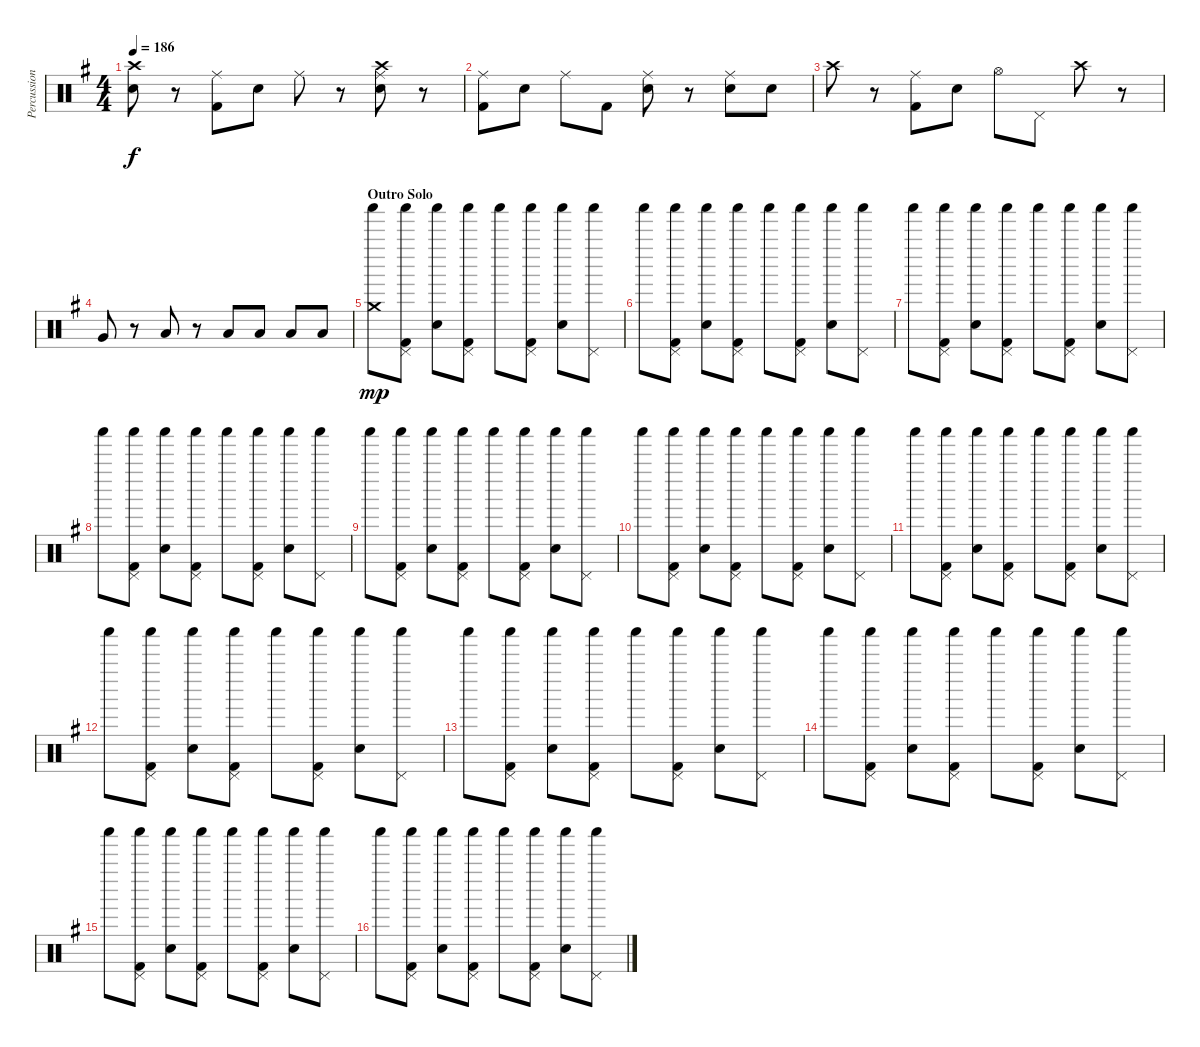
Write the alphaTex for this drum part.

\track ("Percussion" "Percussion") {instrument percussion}
\staff {score}
\articulation defaults
\ts (4 4)
\tempo 186
\clef neutral
\ks g
("Crash high (hit)" "Electric Snare (hit)").8{dy f} r.8 ("Ride (middle)" "Kick (hit) 2").8 "Electric Snare (hit)".8 "Ride (middle)".8 r.8 ("Ride (middle)" "Crash high (hit)" "Electric Snare (hit)").8 r.8 |
("Ride (middle)" "Kick (hit) 2").8 "Electric Snare (hit)".8 "Ride (middle)".8 "Kick (hit) 2".8 ("Ride (middle)" "Electric Snare (hit)").8 r.8 ("Ride (middle)" "Electric Snare (hit)").8 "Electric Snare (hit)".8 |
"Crash high (hit)".8 r.8 ("Ride (middle)" "Kick (hit) 2").8 "Electric Snare (hit)".8 "Hi-Hat (open)".8 "Pedal Hi-Hat (hit)".8 "Crash high (hit)".8 r.8 |
"Very Low Tom (hit)".8 r.8 "Low Tom (hit)".8 r.8 "Low Floor Tom (hit)".8 "Low Floor Tom (hit)".8 "Low Floor Tom (hit)".8 "Low Floor Tom (hit)".8 |
\section ("" "Outro Solo")
("Shaker (hit)" "Crash medium (hit)").8{dy mp} ("Shaker (hit)" "Pedal Hi-Hat (hit)" "Kick (hit) 2").8 ("Shaker (hit)" "Electric Snare (hit)").8 ("Shaker (hit)" "Pedal Hi-Hat (hit)" "Kick (hit) 2").8 "Shaker (hit)".8 ("Shaker (hit)" "Pedal Hi-Hat (hit)" "Kick (hit) 2").8 ("Shaker (hit)" "Electric Snare (hit)").8 ("Shaker (hit)" "Pedal Hi-Hat (hit)").8 |
"Shaker (hit)".8 ("Shaker (hit)" "Pedal Hi-Hat (hit)" "Kick (hit) 2").8 ("Shaker (hit)" "Electric Snare (hit)").8 ("Shaker (hit)" "Pedal Hi-Hat (hit)" "Kick (hit) 2").8 "Shaker (hit)".8 ("Shaker (hit)" "Pedal Hi-Hat (hit)" "Kick (hit) 2").8 ("Shaker (hit)" "Electric Snare (hit)").8 ("Shaker (hit)" "Pedal Hi-Hat (hit)").8 |
"Shaker (hit)".8 ("Shaker (hit)" "Pedal Hi-Hat (hit)" "Kick (hit) 2").8 ("Shaker (hit)" "Electric Snare (hit)").8 ("Shaker (hit)" "Pedal Hi-Hat (hit)" "Kick (hit) 2").8 "Shaker (hit)".8 ("Shaker (hit)" "Pedal Hi-Hat (hit)" "Kick (hit) 2").8 ("Shaker (hit)" "Electric Snare (hit)").8 ("Shaker (hit)" "Pedal Hi-Hat (hit)").8 |
"Shaker (hit)".8 ("Shaker (hit)" "Pedal Hi-Hat (hit)" "Kick (hit) 2").8 ("Shaker (hit)" "Electric Snare (hit)").8 ("Shaker (hit)" "Pedal Hi-Hat (hit)" "Kick (hit) 2").8 "Shaker (hit)".8 ("Shaker (hit)" "Pedal Hi-Hat (hit)" "Kick (hit) 2").8 ("Shaker (hit)" "Electric Snare (hit)").8 ("Shaker (hit)" "Pedal Hi-Hat (hit)").8 |
"Shaker (hit)".8 ("Shaker (hit)" "Pedal Hi-Hat (hit)" "Kick (hit) 2").8 ("Shaker (hit)" "Electric Snare (hit)").8 ("Shaker (hit)" "Pedal Hi-Hat (hit)" "Kick (hit) 2").8 "Shaker (hit)".8 ("Shaker (hit)" "Pedal Hi-Hat (hit)" "Kick (hit) 2").8 ("Shaker (hit)" "Electric Snare (hit)").8 ("Shaker (hit)" "Pedal Hi-Hat (hit)").8 |
"Shaker (hit)".8 ("Shaker (hit)" "Pedal Hi-Hat (hit)" "Kick (hit) 2").8 ("Shaker (hit)" "Electric Snare (hit)").8 ("Shaker (hit)" "Pedal Hi-Hat (hit)" "Kick (hit) 2").8 "Shaker (hit)".8 ("Shaker (hit)" "Pedal Hi-Hat (hit)" "Kick (hit) 2").8 ("Shaker (hit)" "Electric Snare (hit)").8 ("Shaker (hit)" "Pedal Hi-Hat (hit)").8 |
"Shaker (hit)".8 ("Shaker (hit)" "Pedal Hi-Hat (hit)" "Kick (hit) 2").8 ("Shaker (hit)" "Electric Snare (hit)").8 ("Shaker (hit)" "Pedal Hi-Hat (hit)" "Kick (hit) 2").8 "Shaker (hit)".8 ("Shaker (hit)" "Pedal Hi-Hat (hit)" "Kick (hit) 2").8 ("Shaker (hit)" "Electric Snare (hit)").8 ("Shaker (hit)" "Pedal Hi-Hat (hit)").8 |
"Shaker (hit)".8 ("Shaker (hit)" "Pedal Hi-Hat (hit)" "Kick (hit) 2").8 ("Shaker (hit)" "Electric Snare (hit)").8 ("Shaker (hit)" "Pedal Hi-Hat (hit)" "Kick (hit) 2").8 "Shaker (hit)".8 ("Shaker (hit)" "Pedal Hi-Hat (hit)" "Kick (hit) 2").8 ("Shaker (hit)" "Electric Snare (hit)").8 ("Shaker (hit)" "Pedal Hi-Hat (hit)").8 |
"Shaker (hit)".8 ("Shaker (hit)" "Pedal Hi-Hat (hit)" "Kick (hit) 2").8 ("Shaker (hit)" "Electric Snare (hit)").8 ("Shaker (hit)" "Pedal Hi-Hat (hit)" "Kick (hit) 2").8 "Shaker (hit)".8 ("Shaker (hit)" "Pedal Hi-Hat (hit)" "Kick (hit) 2").8 ("Shaker (hit)" "Electric Snare (hit)").8 ("Shaker (hit)" "Pedal Hi-Hat (hit)").8 |
"Shaker (hit)".8 ("Shaker (hit)" "Pedal Hi-Hat (hit)" "Kick (hit) 2").8 ("Shaker (hit)" "Electric Snare (hit)").8 ("Shaker (hit)" "Pedal Hi-Hat (hit)" "Kick (hit) 2").8 "Shaker (hit)".8 ("Shaker (hit)" "Pedal Hi-Hat (hit)" "Kick (hit) 2").8 ("Shaker (hit)" "Electric Snare (hit)").8 ("Shaker (hit)" "Pedal Hi-Hat (hit)").8 |
"Shaker (hit)".8 ("Shaker (hit)" "Pedal Hi-Hat (hit)" "Kick (hit) 2").8 ("Shaker (hit)" "Electric Snare (hit)").8 ("Shaker (hit)" "Pedal Hi-Hat (hit)" "Kick (hit) 2").8 "Shaker (hit)".8 ("Shaker (hit)" "Pedal Hi-Hat (hit)" "Kick (hit) 2").8 ("Shaker (hit)" "Electric Snare (hit)").8 ("Shaker (hit)" "Pedal Hi-Hat (hit)").8 |
"Shaker (hit)".8 ("Shaker (hit)" "Pedal Hi-Hat (hit)" "Kick (hit) 2").8 ("Shaker (hit)" "Electric Snare (hit)").8 ("Shaker (hit)" "Pedal Hi-Hat (hit)" "Kick (hit) 2").8 "Shaker (hit)".8 ("Shaker (hit)" "Pedal Hi-Hat (hit)" "Kick (hit) 2").8 ("Shaker (hit)" "Electric Snare (hit)").8 ("Shaker (hit)" "Pedal Hi-Hat (hit)").8
